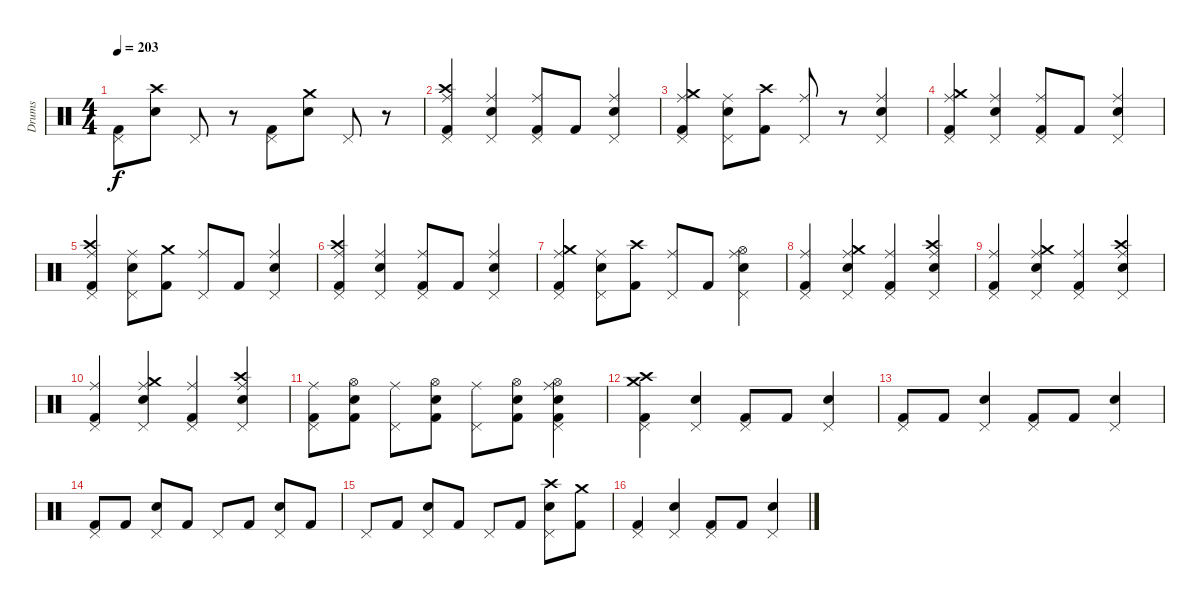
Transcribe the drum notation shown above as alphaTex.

\track ("Drums" "Drums") {instrument percussion}
\staff {score}
\articulation defaults
\ts (4 4)
\tempo 203
\clef neutral
\ks c
("Pedal Hi-Hat (hit)" "Kick (hit) 2").8{dy f} ("Snare (hit) 2" "Crash high (hit)").8 "Pedal Hi-Hat (hit)".8 r.8 ("Pedal Hi-Hat (hit)" "Kick (hit) 2").8 ("Crash medium (hit)" "Snare (hit) 2").8 "Pedal Hi-Hat (hit)".8 r.8 |
("Ride (middle)" "Pedal Hi-Hat (hit)" "Crash high (hit)" "Kick (hit) 2").4 ("Ride (middle)" "Pedal Hi-Hat (hit)" "Snare (hit) 2").4 ("Ride (middle)" "Pedal Hi-Hat (hit)" "Kick (hit) 2").8 "Kick (hit) 2".8 ("Ride (middle)" "Pedal Hi-Hat (hit)" "Snare (hit) 2").4 |
("Ride (middle)" "Pedal Hi-Hat (hit)" "Crash medium (hit)" "Kick (hit) 2").4 ("Ride (middle)" "Pedal Hi-Hat (hit)" "Snare (hit) 2").8 ("Crash high (hit)" "Kick (hit) 2").8 ("Ride (middle)" "Pedal Hi-Hat (hit)").8 r.8 ("Ride (middle)" "Pedal Hi-Hat (hit)" "Snare (hit) 2").4 |
("Ride (middle)" "Pedal Hi-Hat (hit)" "Crash medium (hit)" "Kick (hit) 2").4 ("Ride (middle)" "Pedal Hi-Hat (hit)" "Snare (hit) 2").4 ("Ride (middle)" "Pedal Hi-Hat (hit)" "Kick (hit) 2").8 "Kick (hit) 2".8 ("Pedal Hi-Hat (hit)" "Snare (hit) 2" "Ride (middle)").4 |
("Ride (middle)" "Pedal Hi-Hat (hit)" "Kick (hit) 2" "Crash high (hit)").4 ("Ride (middle)" "Pedal Hi-Hat (hit)" "Snare (hit) 2").8 ("Kick (hit) 2" "Crash medium (hit)").8 ("Ride (middle)" "Pedal Hi-Hat (hit)").8 "Kick (hit) 2".8 ("Ride (middle)" "Pedal Hi-Hat (hit)" "Snare (hit) 2").4 |
("Ride (middle)" "Pedal Hi-Hat (hit)" "Kick (hit) 2" "Crash high (hit)").4 ("Ride (middle)" "Pedal Hi-Hat (hit)" "Snare (hit) 2").4 ("Ride (middle)" "Pedal Hi-Hat (hit)" "Kick (hit) 2").8 "Kick (hit) 2".8 ("Ride (middle)" "Pedal Hi-Hat (hit)" "Snare (hit) 2").4 |
("Ride (middle)" "Pedal Hi-Hat (hit)" "Kick (hit) 2" "Crash medium (hit)").4 ("Ride (middle)" "Pedal Hi-Hat (hit)" "Snare (hit) 2").8 ("Kick (hit) 2" "Crash high (hit)").8 ("Ride (middle)" "Pedal Hi-Hat (hit)").8 "Kick (hit) 2".8 ("Ride (middle)" "Pedal Hi-Hat (hit)" "Hi-Hat (open)" "Snare (hit) 2").4 |
("Ride (middle)" "Pedal Hi-Hat (hit)" "Kick (hit) 2").4 ("Ride (middle)" "Pedal Hi-Hat (hit)" "Snare (hit) 2" "Crash medium (hit)").4 ("Ride (middle)" "Pedal Hi-Hat (hit)" "Kick (hit) 2").4 ("Ride (middle)" "Pedal Hi-Hat (hit)" "Crash high (hit)" "Snare (hit) 2").4 |
("Ride (middle)" "Pedal Hi-Hat (hit)" "Kick (hit) 2").4 ("Ride (middle)" "Pedal Hi-Hat (hit)" "Crash medium (hit)" "Snare (hit) 2").4 ("Ride (middle)" "Pedal Hi-Hat (hit)" "Kick (hit) 2").4 ("Ride (middle)" "Pedal Hi-Hat (hit)" "Crash high (hit)" "Snare (hit) 2").4 |
("Ride (middle)" "Pedal Hi-Hat (hit)" "Kick (hit) 2").4 ("Ride (middle)" "Pedal Hi-Hat (hit)" "Crash medium (hit)" "Snare (hit) 2").4 ("Ride (middle)" "Pedal Hi-Hat (hit)" "Kick (hit) 2").4 ("Ride (middle)" "Pedal Hi-Hat (hit)" "Crash high (hit)" "Snare (hit) 2").4 |
("Ride (middle)" "Pedal Hi-Hat (hit)" "Kick (hit) 2").8 ("Snare (hit) 2" "Kick (hit) 2" "Hi-Hat (open)").8 ("Ride (middle)" "Pedal Hi-Hat (hit)").8 ("Hi-Hat (open)" "Kick (hit) 2" "Snare (hit) 2").8 ("Ride (middle)" "Pedal Hi-Hat (hit)").8 ("Hi-Hat (open)" "Kick (hit) 2" "Snare (hit) 2").8 ("Ride (middle)" "Pedal Hi-Hat (hit)" "Hi-Hat (open)" "Kick (hit) 2" "Snare (hit) 2").4 |
("Pedal Hi-Hat (hit)" "Crash medium (hit)" "Crash high (hit)" "Kick (hit) 2").4 ("Pedal Hi-Hat (hit)" "Snare (hit) 2").4 ("Pedal Hi-Hat (hit)" "Kick (hit) 2").8 "Kick (hit) 2".8 ("Pedal Hi-Hat (hit)" "Snare (hit) 2").4 |
("Pedal Hi-Hat (hit)" "Kick (hit) 2").8 "Kick (hit) 2".8 ("Pedal Hi-Hat (hit)" "Snare (hit) 2").4 ("Pedal Hi-Hat (hit)" "Kick (hit) 2").8 "Kick (hit) 2".8 ("Pedal Hi-Hat (hit)" "Snare (hit) 2").4 |
("Pedal Hi-Hat (hit)" "Kick (hit) 2").8 "Kick (hit) 2".8 ("Pedal Hi-Hat (hit)" "Snare (hit) 2").8 "Kick (hit) 2".8 "Pedal Hi-Hat (hit)".8 "Kick (hit) 2".8 ("Pedal Hi-Hat (hit)" "Snare (hit) 2").8 "Kick (hit) 2".8 |
"Pedal Hi-Hat (hit)".8 "Kick (hit) 2".8 ("Pedal Hi-Hat (hit)" "Snare (hit) 2").8 "Kick (hit) 2".8 "Pedal Hi-Hat (hit)".8 "Kick (hit) 2".8 ("Pedal Hi-Hat (hit)" "Snare (hit) 2" "Crash high (hit)").8 ("Kick (hit) 2" "Crash medium (hit)").8 |
("Pedal Hi-Hat (hit)" "Kick (hit) 2").4 ("Pedal Hi-Hat (hit)" "Snare (hit) 2").4 ("Pedal Hi-Hat (hit)" "Kick (hit) 2").8 "Kick (hit) 2".8 ("Pedal Hi-Hat (hit)" "Snare (hit) 2").4
